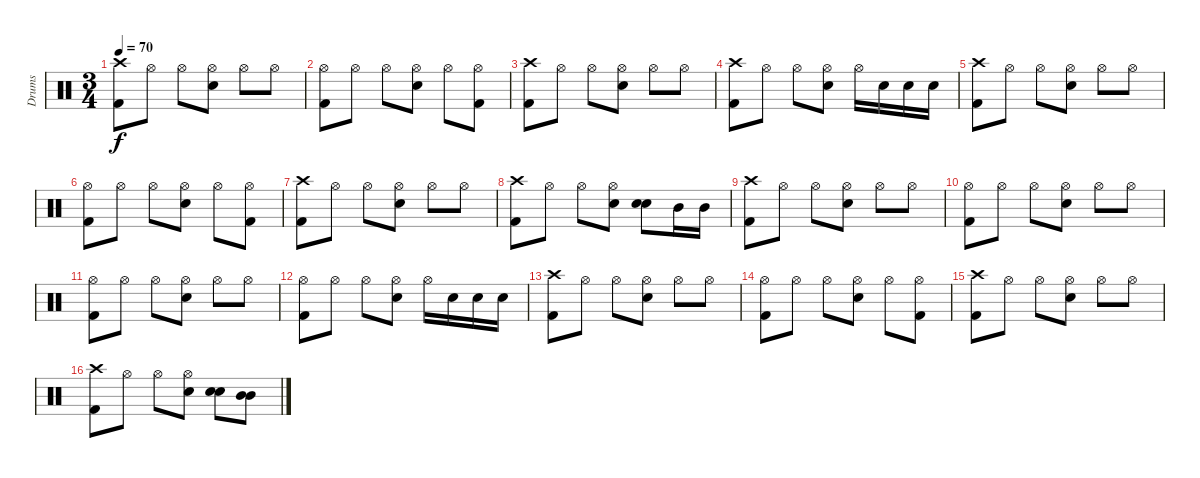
\track ("Drums" "Drums") {instrument percussion}
\staff {score}
\articulation defaults
\ts (3 4)
\tempo 70
\clef neutral
\ks c
("Crash high (hit)" "Kick (hit) 2").8{dy f} "Hi-Hat (open)".8 "Hi-Hat (open)".8 ("Hi-Hat (open)" "Electric Snare (hit)").8 "Hi-Hat (open)".8 "Hi-Hat (open)".8 |
("Hi-Hat (open)" "Kick (hit) 2").8 "Hi-Hat (open)".8 "Hi-Hat (open)".8 ("Hi-Hat (open)" "Electric Snare (hit)").8 "Hi-Hat (open)".8 ("Hi-Hat (open)" "Kick (hit) 2").8 |
("Crash high (hit)" "Kick (hit) 2").8 "Hi-Hat (open)".8 "Hi-Hat (open)".8 ("Hi-Hat (open)" "Electric Snare (hit)").8 "Hi-Hat (open)".8 "Hi-Hat (open)".8 |
("Crash high (hit)" "Kick (hit) 2").8 "Hi-Hat (open)".8 "Hi-Hat (open)".8 ("Hi-Hat (open)" "Electric Snare (hit)").8 "Hi-Hat (open)".16 "Electric Snare (hit)".16 "Electric Snare (hit)".16 "Electric Snare (hit)".16 |
("Crash high (hit)" "Kick (hit) 2").8 "Hi-Hat (open)".8 "Hi-Hat (open)".8 ("Hi-Hat (open)" "Electric Snare (hit)").8 "Hi-Hat (open)".8 "Hi-Hat (open)".8 |
("Hi-Hat (open)" "Kick (hit) 2").8 "Hi-Hat (open)".8 "Hi-Hat (open)".8 ("Hi-Hat (open)" "Electric Snare (hit)").8 "Hi-Hat (open)".8 ("Hi-Hat (open)" "Kick (hit) 2").8 |
("Crash high (hit)" "Kick (hit) 2").8 "Hi-Hat (open)".8 "Hi-Hat (open)".8 ("Hi-Hat (open)" "Electric Snare (hit)").8 "Hi-Hat (open)".8 "Hi-Hat (open)".8 |
("Crash high (hit)" "Kick (hit) 2").8 "Hi-Hat (open)".8 "Hi-Hat (open)".8 ("Hi-Hat (open)" "Electric Snare (hit)").8 ("Electric Snare (hit)" "Electric Snare (hit)").8{bu 120} "Mid Tom (hit)".16 "Mid Tom (hit)".16 |
("Crash high (hit)" "Kick (hit) 2").8 "Hi-Hat (open)".8 "Hi-Hat (open)".8 ("Hi-Hat (open)" "Electric Snare (hit)").8 "Hi-Hat (open)".8 "Hi-Hat (open)".8 |
("Hi-Hat (open)" "Kick (hit) 2").8 "Hi-Hat (open)".8 "Hi-Hat (open)".8 ("Hi-Hat (open)" "Electric Snare (hit)").8 "Hi-Hat (open)".8 "Hi-Hat (open)".8 |
("Hi-Hat (open)" "Kick (hit) 2").8 "Hi-Hat (open)".8 "Hi-Hat (open)".8 ("Hi-Hat (open)" "Electric Snare (hit)").8 "Hi-Hat (open)".8 "Hi-Hat (open)".8 |
("Hi-Hat (open)" "Kick (hit) 2").8 "Hi-Hat (open)".8 "Hi-Hat (open)".8 ("Hi-Hat (open)" "Electric Snare (hit)").8 "Hi-Hat (open)".16 "Electric Snare (hit)".16 "Electric Snare (hit)".16 "Electric Snare (hit)".16 |
("Crash high (hit)" "Kick (hit) 2").8 "Hi-Hat (open)".8 "Hi-Hat (open)".8 ("Hi-Hat (open)" "Electric Snare (hit)").8 "Hi-Hat (open)".8 "Hi-Hat (open)".8 |
("Hi-Hat (open)" "Kick (hit) 2").8 "Hi-Hat (open)".8 "Hi-Hat (open)".8 ("Hi-Hat (open)" "Electric Snare (hit)").8 "Hi-Hat (open)".8 ("Hi-Hat (open)" "Kick (hit) 2").8 |
("Crash high (hit)" "Kick (hit) 2").8 "Hi-Hat (open)".8 "Hi-Hat (open)".8 ("Hi-Hat (open)" "Electric Snare (hit)").8 "Hi-Hat (open)".8 "Hi-Hat (open)".8 |
("Crash high (hit)" "Kick (hit) 2").8 "Hi-Hat (open)".8 "Hi-Hat (open)".8 ("Hi-Hat (open)" "Electric Snare (hit)").8 ("Electric Snare (hit)" "Electric Snare (hit)").8{bu 120} ("Mid Tom (hit)" "Mid Tom (hit)").8{bu 120}
